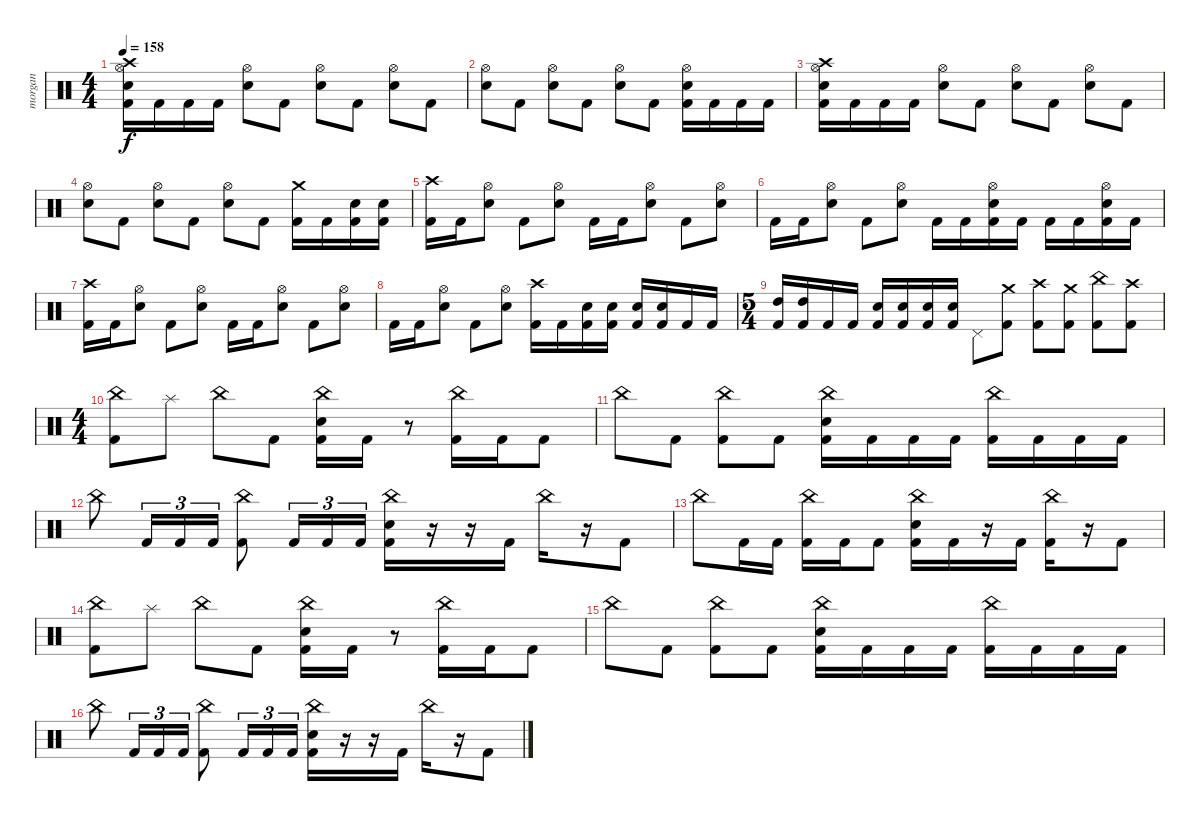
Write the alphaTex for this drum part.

\track ("morgan" "morgan") {instrument percussion}
\staff {score}
\articulation defaults
\ts (4 4)
\tempo 158
\clef neutral
\ks c
("Crash high (hit)" "Hi-Hat (open)" "Electric Snare (hit)" "Kick (hit) 2").16{dy f} "Kick (hit) 2".16 "Kick (hit) 2".16 "Kick (hit) 2".16 ("Hi-Hat (open)" "Electric Snare (hit)").8 "Kick (hit) 2".8 ("Hi-Hat (open)" "Electric Snare (hit)").8 "Kick (hit) 2".8 ("Hi-Hat (open)" "Electric Snare (hit)").8 "Kick (hit) 2".8 |
("Hi-Hat (open)" "Electric Snare (hit)").8 "Kick (hit) 2".8 ("Hi-Hat (open)" "Electric Snare (hit)").8 "Kick (hit) 2".8 ("Hi-Hat (open)" "Electric Snare (hit)").8 "Kick (hit) 2".8 ("Hi-Hat (open)" "Electric Snare (hit)" "Kick (hit) 2").16 "Kick (hit) 2".16 "Kick (hit) 2".16 "Kick (hit) 2".16 |
("Crash high (hit)" "Hi-Hat (open)" "Electric Snare (hit)" "Kick (hit) 2").16 "Kick (hit) 2".16 "Kick (hit) 2".16 "Kick (hit) 2".16 ("Hi-Hat (open)" "Electric Snare (hit)").8 "Kick (hit) 2".8 ("Hi-Hat (open)" "Electric Snare (hit)").8 "Kick (hit) 2".8 ("Hi-Hat (open)" "Electric Snare (hit)").8 "Kick (hit) 2".8 |
("Hi-Hat (open)" "Electric Snare (hit)").8 "Kick (hit) 2".8 ("Hi-Hat (open)" "Electric Snare (hit)").8 "Kick (hit) 2".8 ("Hi-Hat (open)" "Electric Snare (hit)").8 "Kick (hit) 2".8 ("Crash medium (hit)" "Kick (hit) 2").16 "Kick (hit) 2".16 ("Electric Snare (hit)" "Kick (hit) 2").16 ("Electric Snare (hit)" "Kick (hit) 2").16 |
("Crash high (hit)" "Kick (hit) 2").16 "Kick (hit) 2".16 ("Hi-Hat (open)" "Electric Snare (hit)").8 "Kick (hit) 2".8 ("Hi-Hat (open)" "Electric Snare (hit)").8 "Kick (hit) 2".16 "Kick (hit) 2".16 ("Hi-Hat (open)" "Electric Snare (hit)").8 "Kick (hit) 2".8 ("Hi-Hat (open)" "Electric Snare (hit)").8 |
"Kick (hit) 2".16 "Kick (hit) 2".16 ("Hi-Hat (open)" "Electric Snare (hit)").8 "Kick (hit) 2".8 ("Hi-Hat (open)" "Electric Snare (hit)").8 "Kick (hit) 2".16 "Kick (hit) 2".16 ("Hi-Hat (open)" "Electric Snare (hit)" "Kick (hit) 2").16 "Kick (hit) 2".16 "Kick (hit) 2".16 "Kick (hit) 2".16 ("Hi-Hat (open)" "Electric Snare (hit)" "Kick (hit) 2").16 "Kick (hit) 2".16 |
("Crash high (hit)" "Kick (hit) 2").16 "Kick (hit) 2".16 ("Hi-Hat (open)" "Electric Snare (hit)").8 "Kick (hit) 2".8 ("Hi-Hat (open)" "Electric Snare (hit)").8 "Kick (hit) 2".16 "Kick (hit) 2".16 ("Hi-Hat (open)" "Electric Snare (hit)").8 "Kick (hit) 2".8 ("Hi-Hat (open)" "Electric Snare (hit)").8 |
"Kick (hit) 2".16 "Kick (hit) 2".16 ("Hi-Hat (open)" "Electric Snare (hit)").8 "Kick (hit) 2".8 ("Hi-Hat (open)" "Electric Snare (hit)").8 ("Crash high (hit)" "Kick (hit) 2").16 "Kick (hit) 2".16 ("Electric Snare (hit)" "Kick (hit) 2").16 ("Electric Snare (hit)" "Kick (hit) 2").16 ("Electric Snare (hit)" "Kick (hit) 2").16 ("Electric Snare (hit)" "Kick (hit) 2").16 "Kick (hit) 2".16 "Kick (hit) 2".16 |
\ts (5 4)
("High Tom (hit)" "Kick (hit) 2").16 ("High Tom (hit)" "Kick (hit) 2").16 "Kick (hit) 2".16 "Kick (hit) 2".16 ("Electric Snare (hit)" "Kick (hit) 2").16 ("Electric Snare (hit)" "Kick (hit) 2").16 ("Electric Snare (hit)" "Kick (hit) 2").16 ("Electric Snare (hit)" "Kick (hit) 2").16 "Pedal Hi-Hat (hit)".8 ("Crash medium (hit)" "Kick (hit) 2").8 ("Crash high (hit)" "Kick (hit) 2").8 ("Crash medium (hit)" "Kick (hit) 2").8 ("China (hit)" "Kick (hit) 2").8 ("Crash high (hit)" "Kick (hit) 2").8 |
\ts (4 4)
("China (hit)" "Kick (hit) 2").8 "Splash (hit)".8 "China (hit)".8 "Kick (hit) 2".8 ("China (hit)" "Electric Snare (hit)" "Kick (hit) 2").16 "Kick (hit) 2".16 r.8 ("China (hit)" "Kick (hit) 2").16 "Kick (hit) 2".16 "Kick (hit) 2".8 |
"China (hit)".8 "Kick (hit) 2".8 ("China (hit)" "Kick (hit) 2").8 "Kick (hit) 2".8 ("China (hit)" "Electric Snare (hit)" "Kick (hit) 2").16 "Kick (hit) 2".16 "Kick (hit) 2".16 "Kick (hit) 2".16 ("China (hit)" "Kick (hit) 2").16 "Kick (hit) 2".16 "Kick (hit) 2".16 "Kick (hit) 2".16 |
"China (hit)".8 "Kick (hit) 2".16{tu (3 2)} "Kick (hit) 2".16{tu (3 2)} "Kick (hit) 2".16{tu (3 2)} ("China (hit)" "Kick (hit) 2").8 "Kick (hit) 2".16{tu (3 2)} "Kick (hit) 2".16{tu (3 2)} "Kick (hit) 2".16{tu (3 2)} ("China (hit)" "Electric Snare (hit)" "Kick (hit) 2").16 r.16 r.16 "Kick (hit) 2".16 "China (hit)".16 r.16 "Kick (hit) 2".8 |
"China (hit)".8 "Kick (hit) 2".16 "Kick (hit) 2".16 ("China (hit)" "Kick (hit) 2").16 "Kick (hit) 2".16 "Kick (hit) 2".8 ("China (hit)" "Electric Snare (hit)" "Kick (hit) 2").16 "Kick (hit) 2".16 r.16 "Kick (hit) 2".16 ("China (hit)" "Kick (hit) 2").16 r.16 "Kick (hit) 2".8 |
("China (hit)" "Kick (hit) 2").8 "Splash (hit)".8 "China (hit)".8 "Kick (hit) 2".8 ("China (hit)" "Electric Snare (hit)" "Kick (hit) 2").16 "Kick (hit) 2".16 r.8 ("China (hit)" "Kick (hit) 2").16 "Kick (hit) 2".16 "Kick (hit) 2".8 |
"China (hit)".8 "Kick (hit) 2".8 ("China (hit)" "Kick (hit) 2").8 "Kick (hit) 2".8 ("China (hit)" "Electric Snare (hit)" "Kick (hit) 2").16 "Kick (hit) 2".16 "Kick (hit) 2".16 "Kick (hit) 2".16 ("China (hit)" "Kick (hit) 2").16 "Kick (hit) 2".16 "Kick (hit) 2".16 "Kick (hit) 2".16 |
"China (hit)".8 "Kick (hit) 2".16{tu (3 2)} "Kick (hit) 2".16{tu (3 2)} "Kick (hit) 2".16{tu (3 2)} ("China (hit)" "Kick (hit) 2").8 "Kick (hit) 2".16{tu (3 2)} "Kick (hit) 2".16{tu (3 2)} "Kick (hit) 2".16{tu (3 2)} ("China (hit)" "Electric Snare (hit)" "Kick (hit) 2").16 r.16 r.16 "Kick (hit) 2".16 "China (hit)".16 r.16 "Kick (hit) 2".8
